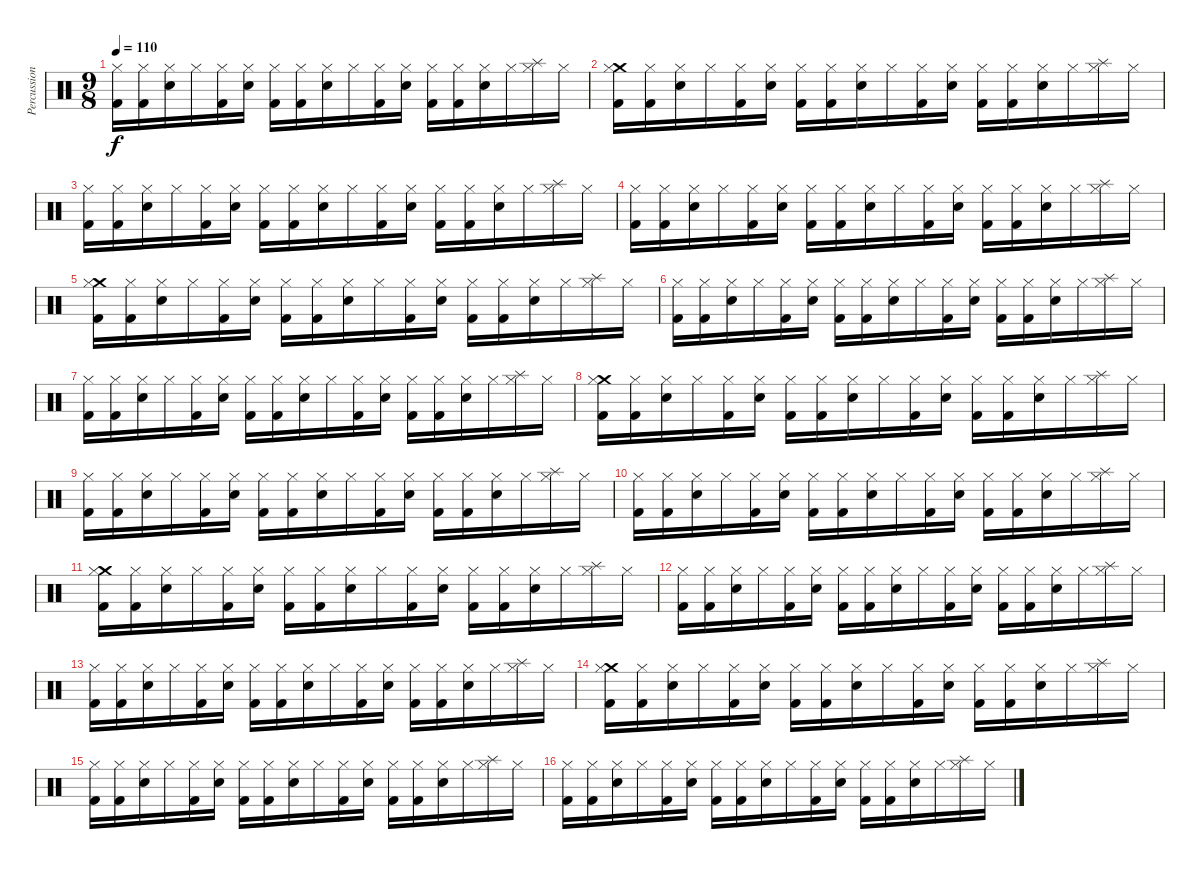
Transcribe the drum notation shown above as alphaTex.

\track ("Percussion" "Percussion") {instrument percussion}
\staff {score}
\articulation defaults
\ts (9 8)
\tempo 110
\clef neutral
\ks c
("Hi-Hat (closed)" "Kick (hit) 2").16{dy f} ("Hi-Hat (closed)" "Kick (hit) 2").16 ("Hi-Hat (closed)" "Electric Snare (hit)").16 "Hi-Hat (closed)".16 ("Hi-Hat (closed)" "Kick (hit) 2").16 ("Hi-Hat (closed)" "Electric Snare (hit)").16 ("Hi-Hat (closed)" "Kick (hit) 2").16 ("Hi-Hat (closed)" "Kick (hit) 2").16 ("Hi-Hat (closed)" "Snare (hit) 2").16 "Hi-Hat (closed)".16 ("Hi-Hat (closed)" "Kick (hit) 2").16 ("Hi-Hat (closed)" "Electric Snare (hit)").16 ("Hi-Hat (closed)" "Kick (hit) 2").16 ("Hi-Hat (closed)" "Kick (hit) 2").16 ("Hi-Hat (closed)" "Electric Snare (hit)").16 "Hi-Hat (closed)".16 ("Hi-Hat (closed)" "Splash (hit)").16 "Hi-Hat (closed)".16 |
("Crash medium (hit)" "Hi-Hat (closed)" "Kick (hit) 2").16 ("Hi-Hat (closed)" "Kick (hit) 2").16 ("Hi-Hat (closed)" "Electric Snare (hit)").16 "Hi-Hat (closed)".16 ("Hi-Hat (closed)" "Kick (hit) 2").16 ("Hi-Hat (closed)" "Electric Snare (hit)").16 ("Hi-Hat (closed)" "Kick (hit) 2").16 ("Hi-Hat (closed)" "Kick (hit) 2").16 ("Hi-Hat (closed)" "Snare (hit) 2").16 "Hi-Hat (closed)".16 ("Hi-Hat (closed)" "Kick (hit) 2").16 ("Hi-Hat (closed)" "Electric Snare (hit)").16 ("Hi-Hat (closed)" "Kick (hit) 2").16 ("Hi-Hat (closed)" "Kick (hit) 2").16 ("Hi-Hat (closed)" "Electric Snare (hit)").16 "Hi-Hat (closed)".16 ("Hi-Hat (closed)" "Splash (hit)").16 "Hi-Hat (closed)".16 |
("Hi-Hat (closed)" "Kick (hit) 2").16 ("Hi-Hat (closed)" "Kick (hit) 2").16 ("Hi-Hat (closed)" "Electric Snare (hit)").16 "Hi-Hat (closed)".16 ("Hi-Hat (closed)" "Kick (hit) 2").16 ("Hi-Hat (closed)" "Electric Snare (hit)").16 ("Hi-Hat (closed)" "Kick (hit) 2").16 ("Hi-Hat (closed)" "Kick (hit) 2").16 ("Hi-Hat (closed)" "Snare (hit) 2").16 "Hi-Hat (closed)".16 ("Hi-Hat (closed)" "Kick (hit) 2").16 ("Hi-Hat (closed)" "Electric Snare (hit)").16 ("Hi-Hat (closed)" "Kick (hit) 2").16 ("Hi-Hat (closed)" "Kick (hit) 2").16 ("Hi-Hat (closed)" "Electric Snare (hit)").16 "Hi-Hat (closed)".16 ("Hi-Hat (closed)" "Splash (hit)").16 "Hi-Hat (closed)".16 |
("Hi-Hat (closed)" "Kick (hit) 2").16 ("Hi-Hat (closed)" "Kick (hit) 2").16 ("Hi-Hat (closed)" "Electric Snare (hit)").16 "Hi-Hat (closed)".16 ("Hi-Hat (closed)" "Kick (hit) 2").16 ("Hi-Hat (closed)" "Electric Snare (hit)").16 ("Hi-Hat (closed)" "Kick (hit) 2").16 ("Hi-Hat (closed)" "Kick (hit) 2").16 ("Hi-Hat (closed)" "Snare (hit) 2").16 "Hi-Hat (closed)".16 ("Hi-Hat (closed)" "Kick (hit) 2").16 ("Hi-Hat (closed)" "Electric Snare (hit)").16 ("Hi-Hat (closed)" "Kick (hit) 2").16 ("Hi-Hat (closed)" "Kick (hit) 2").16 ("Hi-Hat (closed)" "Electric Snare (hit)").16 "Hi-Hat (closed)".16 ("Hi-Hat (closed)" "Splash (hit)").16 "Hi-Hat (closed)".16 |
("Crash medium (hit)" "Hi-Hat (closed)" "Kick (hit) 2").16 ("Hi-Hat (closed)" "Kick (hit) 2").16 ("Hi-Hat (closed)" "Electric Snare (hit)").16 "Hi-Hat (closed)".16 ("Hi-Hat (closed)" "Kick (hit) 2").16 ("Hi-Hat (closed)" "Electric Snare (hit)").16 ("Hi-Hat (closed)" "Kick (hit) 2").16 ("Hi-Hat (closed)" "Kick (hit) 2").16 ("Hi-Hat (closed)" "Snare (hit) 2").16 "Hi-Hat (closed)".16 ("Hi-Hat (closed)" "Kick (hit) 2").16 ("Hi-Hat (closed)" "Electric Snare (hit)").16 ("Hi-Hat (closed)" "Kick (hit) 2").16 ("Hi-Hat (closed)" "Kick (hit) 2").16 ("Hi-Hat (closed)" "Electric Snare (hit)").16 "Hi-Hat (closed)".16 ("Hi-Hat (closed)" "Splash (hit)").16 "Hi-Hat (closed)".16 |
("Hi-Hat (closed)" "Kick (hit) 2").16 ("Hi-Hat (closed)" "Kick (hit) 2").16 ("Hi-Hat (closed)" "Electric Snare (hit)").16 "Hi-Hat (closed)".16 ("Hi-Hat (closed)" "Kick (hit) 2").16 ("Hi-Hat (closed)" "Electric Snare (hit)").16 ("Hi-Hat (closed)" "Kick (hit) 2").16 ("Hi-Hat (closed)" "Kick (hit) 2").16 ("Hi-Hat (closed)" "Snare (hit) 2").16 "Hi-Hat (closed)".16 ("Hi-Hat (closed)" "Kick (hit) 2").16 ("Hi-Hat (closed)" "Electric Snare (hit)").16 ("Hi-Hat (closed)" "Kick (hit) 2").16 ("Hi-Hat (closed)" "Kick (hit) 2").16 ("Hi-Hat (closed)" "Electric Snare (hit)").16 "Hi-Hat (closed)".16 ("Hi-Hat (closed)" "Splash (hit)").16 "Hi-Hat (closed)".16 |
("Hi-Hat (closed)" "Kick (hit) 2").16 ("Hi-Hat (closed)" "Kick (hit) 2").16 ("Hi-Hat (closed)" "Electric Snare (hit)").16 "Hi-Hat (closed)".16 ("Hi-Hat (closed)" "Kick (hit) 2").16 ("Hi-Hat (closed)" "Electric Snare (hit)").16 ("Hi-Hat (closed)" "Kick (hit) 2").16 ("Hi-Hat (closed)" "Kick (hit) 2").16 ("Hi-Hat (closed)" "Snare (hit) 2").16 "Hi-Hat (closed)".16 ("Hi-Hat (closed)" "Kick (hit) 2").16 ("Hi-Hat (closed)" "Electric Snare (hit)").16 ("Hi-Hat (closed)" "Kick (hit) 2").16 ("Hi-Hat (closed)" "Kick (hit) 2").16 ("Hi-Hat (closed)" "Electric Snare (hit)").16 "Hi-Hat (closed)".16 ("Hi-Hat (closed)" "Splash (hit)").16 "Hi-Hat (closed)".16 |
("Crash medium (hit)" "Hi-Hat (closed)" "Kick (hit) 2").16 ("Hi-Hat (closed)" "Kick (hit) 2").16 ("Hi-Hat (closed)" "Electric Snare (hit)").16 "Hi-Hat (closed)".16 ("Hi-Hat (closed)" "Kick (hit) 2").16 ("Hi-Hat (closed)" "Electric Snare (hit)").16 ("Hi-Hat (closed)" "Kick (hit) 2").16 ("Hi-Hat (closed)" "Kick (hit) 2").16 ("Hi-Hat (closed)" "Snare (hit) 2").16 "Hi-Hat (closed)".16 ("Hi-Hat (closed)" "Kick (hit) 2").16 ("Hi-Hat (closed)" "Electric Snare (hit)").16 ("Hi-Hat (closed)" "Kick (hit) 2").16 ("Hi-Hat (closed)" "Kick (hit) 2").16 ("Hi-Hat (closed)" "Electric Snare (hit)").16 "Hi-Hat (closed)".16 ("Hi-Hat (closed)" "Splash (hit)").16 "Hi-Hat (closed)".16 |
("Hi-Hat (closed)" "Kick (hit) 2").16 ("Hi-Hat (closed)" "Kick (hit) 2").16 ("Hi-Hat (closed)" "Electric Snare (hit)").16 "Hi-Hat (closed)".16 ("Hi-Hat (closed)" "Kick (hit) 2").16 ("Hi-Hat (closed)" "Electric Snare (hit)").16 ("Hi-Hat (closed)" "Kick (hit) 2").16 ("Hi-Hat (closed)" "Kick (hit) 2").16 ("Hi-Hat (closed)" "Snare (hit) 2").16 "Hi-Hat (closed)".16 ("Hi-Hat (closed)" "Kick (hit) 2").16 ("Hi-Hat (closed)" "Electric Snare (hit)").16 ("Hi-Hat (closed)" "Kick (hit) 2").16 ("Hi-Hat (closed)" "Kick (hit) 2").16 ("Hi-Hat (closed)" "Electric Snare (hit)").16 "Hi-Hat (closed)".16 ("Hi-Hat (closed)" "Splash (hit)").16 "Hi-Hat (closed)".16 |
("Hi-Hat (closed)" "Kick (hit) 2").16 ("Hi-Hat (closed)" "Kick (hit) 2").16 ("Hi-Hat (closed)" "Electric Snare (hit)").16 "Hi-Hat (closed)".16 ("Hi-Hat (closed)" "Kick (hit) 2").16 ("Hi-Hat (closed)" "Electric Snare (hit)").16 ("Hi-Hat (closed)" "Kick (hit) 2").16 ("Hi-Hat (closed)" "Kick (hit) 2").16 ("Hi-Hat (closed)" "Snare (hit) 2").16 "Hi-Hat (closed)".16 ("Hi-Hat (closed)" "Kick (hit) 2").16 ("Hi-Hat (closed)" "Electric Snare (hit)").16 ("Hi-Hat (closed)" "Kick (hit) 2").16 ("Hi-Hat (closed)" "Kick (hit) 2").16 ("Hi-Hat (closed)" "Electric Snare (hit)").16 "Hi-Hat (closed)".16 ("Hi-Hat (closed)" "Splash (hit)").16 "Hi-Hat (closed)".16 |
("Crash medium (hit)" "Hi-Hat (closed)" "Kick (hit) 2").16 ("Hi-Hat (closed)" "Kick (hit) 2").16 ("Hi-Hat (closed)" "Electric Snare (hit)").16 "Hi-Hat (closed)".16 ("Hi-Hat (closed)" "Kick (hit) 2").16 ("Hi-Hat (closed)" "Electric Snare (hit)").16 ("Hi-Hat (closed)" "Kick (hit) 2").16 ("Hi-Hat (closed)" "Kick (hit) 2").16 ("Hi-Hat (closed)" "Snare (hit) 2").16 "Hi-Hat (closed)".16 ("Hi-Hat (closed)" "Kick (hit) 2").16 ("Hi-Hat (closed)" "Electric Snare (hit)").16 ("Hi-Hat (closed)" "Kick (hit) 2").16 ("Hi-Hat (closed)" "Kick (hit) 2").16 ("Hi-Hat (closed)" "Electric Snare (hit)").16 "Hi-Hat (closed)".16 ("Hi-Hat (closed)" "Splash (hit)").16 "Hi-Hat (closed)".16 |
("Hi-Hat (closed)" "Kick (hit) 2").16 ("Hi-Hat (closed)" "Kick (hit) 2").16 ("Hi-Hat (closed)" "Electric Snare (hit)").16 "Hi-Hat (closed)".16 ("Hi-Hat (closed)" "Kick (hit) 2").16 ("Hi-Hat (closed)" "Electric Snare (hit)").16 ("Hi-Hat (closed)" "Kick (hit) 2").16 ("Hi-Hat (closed)" "Kick (hit) 2").16 ("Hi-Hat (closed)" "Snare (hit) 2").16 "Hi-Hat (closed)".16 ("Hi-Hat (closed)" "Kick (hit) 2").16 ("Hi-Hat (closed)" "Electric Snare (hit)").16 ("Hi-Hat (closed)" "Kick (hit) 2").16 ("Hi-Hat (closed)" "Kick (hit) 2").16 ("Hi-Hat (closed)" "Electric Snare (hit)").16 "Hi-Hat (closed)".16 ("Hi-Hat (closed)" "Splash (hit)").16 "Hi-Hat (closed)".16 |
("Hi-Hat (closed)" "Kick (hit) 2").16 ("Hi-Hat (closed)" "Kick (hit) 2").16 ("Hi-Hat (closed)" "Electric Snare (hit)").16 "Hi-Hat (closed)".16 ("Hi-Hat (closed)" "Kick (hit) 2").16 ("Hi-Hat (closed)" "Electric Snare (hit)").16 ("Hi-Hat (closed)" "Kick (hit) 2").16 ("Hi-Hat (closed)" "Kick (hit) 2").16 ("Hi-Hat (closed)" "Snare (hit) 2").16 "Hi-Hat (closed)".16 ("Hi-Hat (closed)" "Kick (hit) 2").16 ("Hi-Hat (closed)" "Electric Snare (hit)").16 ("Hi-Hat (closed)" "Kick (hit) 2").16 ("Hi-Hat (closed)" "Kick (hit) 2").16 ("Hi-Hat (closed)" "Electric Snare (hit)").16 "Hi-Hat (closed)".16 ("Hi-Hat (closed)" "Splash (hit)").16 "Hi-Hat (closed)".16 |
("Crash medium (hit)" "Hi-Hat (closed)" "Kick (hit) 2").16 ("Hi-Hat (closed)" "Kick (hit) 2").16 ("Hi-Hat (closed)" "Electric Snare (hit)").16 "Hi-Hat (closed)".16 ("Hi-Hat (closed)" "Kick (hit) 2").16 ("Hi-Hat (closed)" "Electric Snare (hit)").16 ("Hi-Hat (closed)" "Kick (hit) 2").16 ("Hi-Hat (closed)" "Kick (hit) 2").16 ("Hi-Hat (closed)" "Snare (hit) 2").16 "Hi-Hat (closed)".16 ("Hi-Hat (closed)" "Kick (hit) 2").16 ("Hi-Hat (closed)" "Electric Snare (hit)").16 ("Hi-Hat (closed)" "Kick (hit) 2").16 ("Hi-Hat (closed)" "Kick (hit) 2").16 ("Hi-Hat (closed)" "Electric Snare (hit)").16 "Hi-Hat (closed)".16 ("Hi-Hat (closed)" "Splash (hit)").16 "Hi-Hat (closed)".16 |
("Hi-Hat (closed)" "Kick (hit) 2").16 ("Hi-Hat (closed)" "Kick (hit) 2").16 ("Hi-Hat (closed)" "Electric Snare (hit)").16 "Hi-Hat (closed)".16 ("Hi-Hat (closed)" "Kick (hit) 2").16 ("Hi-Hat (closed)" "Electric Snare (hit)").16 ("Hi-Hat (closed)" "Kick (hit) 2").16 ("Hi-Hat (closed)" "Kick (hit) 2").16 ("Hi-Hat (closed)" "Snare (hit) 2").16 "Hi-Hat (closed)".16 ("Hi-Hat (closed)" "Kick (hit) 2").16 ("Hi-Hat (closed)" "Electric Snare (hit)").16 ("Hi-Hat (closed)" "Kick (hit) 2").16 ("Hi-Hat (closed)" "Kick (hit) 2").16 ("Hi-Hat (closed)" "Electric Snare (hit)").16 "Hi-Hat (closed)".16 ("Hi-Hat (closed)" "Splash (hit)").16 "Hi-Hat (closed)".16 |
("Hi-Hat (closed)" "Kick (hit) 2").16 ("Hi-Hat (closed)" "Kick (hit) 2").16 ("Hi-Hat (closed)" "Electric Snare (hit)").16 "Hi-Hat (closed)".16 ("Hi-Hat (closed)" "Kick (hit) 2").16 ("Hi-Hat (closed)" "Electric Snare (hit)").16 ("Hi-Hat (closed)" "Kick (hit) 2").16 ("Hi-Hat (closed)" "Kick (hit) 2").16 ("Hi-Hat (closed)" "Snare (hit) 2").16 "Hi-Hat (closed)".16 ("Hi-Hat (closed)" "Kick (hit) 2").16 ("Hi-Hat (closed)" "Electric Snare (hit)").16 ("Hi-Hat (closed)" "Kick (hit) 2").16 ("Hi-Hat (closed)" "Kick (hit) 2").16 ("Hi-Hat (closed)" "Electric Snare (hit)").16 "Hi-Hat (closed)".16 ("Hi-Hat (closed)" "Splash (hit)").16 "Hi-Hat (closed)".16
